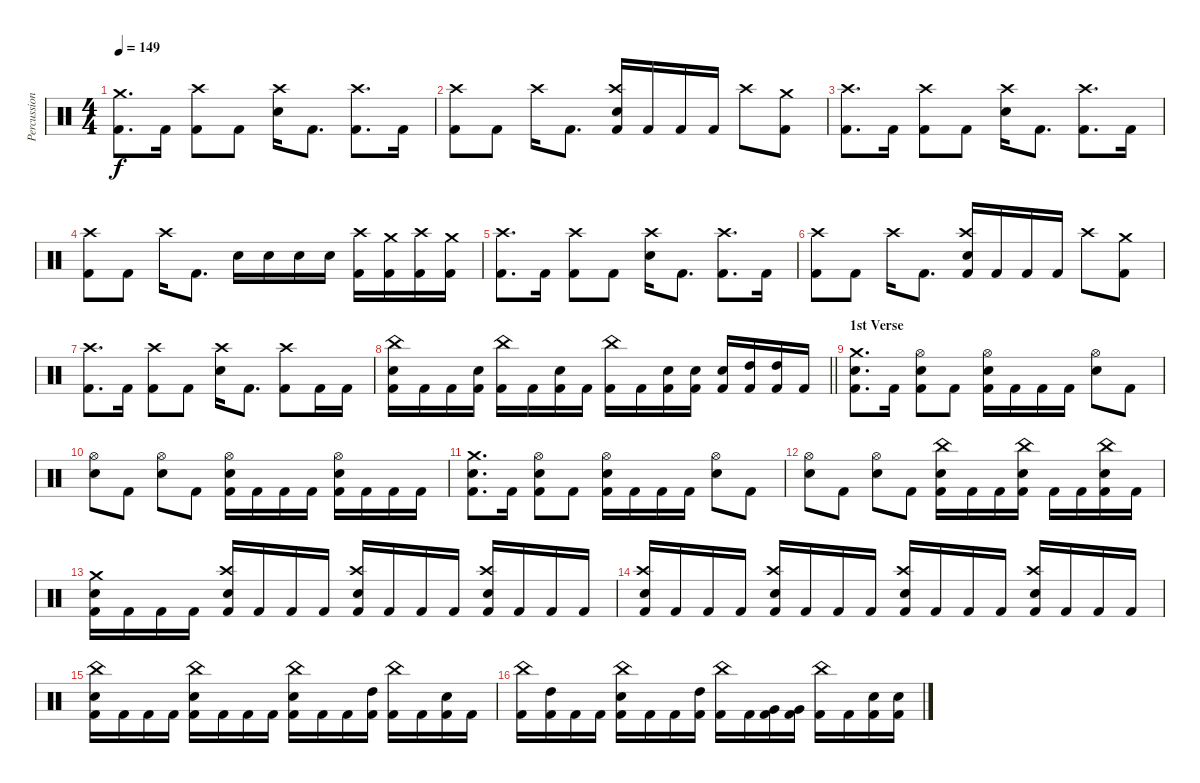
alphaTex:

\track ("Percussions" "Percussion") {instrument percussion}
\staff {score}
\articulation defaults
\ts (4 4)
\tempo 149
\clef neutral
\ks c
("Crash medium (hit)" "Kick (hit) 2").8{d dy f} "Kick (hit) 2".16 ("Crash high (hit)" "Kick (hit) 2").8 "Kick (hit) 2".8 ("Crash high (hit)" "Snare (hit) 2").16 "Kick (hit) 2".8{d} ("Crash high (hit)" "Kick (hit) 2").8{d} "Kick (hit) 2".16 |
("Crash high (hit)" "Kick (hit) 2").8 "Kick (hit) 2".8 "Crash high (hit)".16 "Kick (hit) 2".8{d} ("Crash high (hit)" "Snare (hit) 2" "Kick (hit) 2").16 "Kick (hit) 2".16 "Kick (hit) 2".16 "Kick (hit) 2".16 "Crash high (hit)".8 ("Crash medium (hit)" "Kick (hit) 2").8 |
("Crash high (hit)" "Kick (hit) 2").8{d} "Kick (hit) 2".16 ("Crash high (hit)" "Kick (hit) 2").8 "Kick (hit) 2".8 ("Crash high (hit)" "Snare (hit) 2").16 "Kick (hit) 2".8{d} ("Crash high (hit)" "Kick (hit) 2").8{d} "Kick (hit) 2".16 |
("Crash high (hit)" "Kick (hit) 2").8 "Kick (hit) 2".8 "Crash high (hit)".16 "Kick (hit) 2".8{d} "Snare (hit) 2".16 "Snare (hit) 2".16 "Snare (hit) 2".16 "Snare (hit) 2".16 ("Crash high (hit)" "Kick (hit) 2").16 ("Crash medium (hit)" "Kick (hit) 2").16 ("Crash high (hit)" "Kick (hit) 2").16 ("Crash medium (hit)" "Kick (hit) 2").16 |
("Crash high (hit)" "Kick (hit) 2").8{d} "Kick (hit) 2".16 ("Crash high (hit)" "Kick (hit) 2").8 "Kick (hit) 2".8 ("Crash high (hit)" "Snare (hit) 2").16 "Kick (hit) 2".8{d} ("Crash high (hit)" "Kick (hit) 2").8{d} "Kick (hit) 2".16 |
("Crash high (hit)" "Kick (hit) 2").8 "Kick (hit) 2".8 "Crash high (hit)".16 "Kick (hit) 2".8{d} ("Crash high (hit)" "Snare (hit) 2" "Kick (hit) 2").16 "Kick (hit) 2".16 "Kick (hit) 2".16 "Kick (hit) 2".16 "Crash high (hit)".8 ("Crash medium (hit)" "Kick (hit) 2").8 |
("Crash high (hit)" "Kick (hit) 2").8{d} "Kick (hit) 2".16 ("Crash high (hit)" "Kick (hit) 2").8 "Kick (hit) 2".8 ("Crash high (hit)" "Snare (hit) 2").16 "Kick (hit) 2".8{d} ("Crash high (hit)" "Kick (hit) 2").8 "Kick (hit) 2".16 "Kick (hit) 2".16 |
\barLineRight lightlight
("China (hit)" "Snare (hit) 2" "Kick (hit) 2").16 "Kick (hit) 2".16 "Kick (hit) 2".16 ("Snare (hit) 2" "Kick (hit) 2").16 ("China (hit)" "Kick (hit) 2").16 "Kick (hit) 2".16 ("Snare (hit) 2" "Kick (hit) 2").16 "Kick (hit) 2".16 ("China (hit)" "Kick (hit) 2").16 "Kick (hit) 2".16 ("Snare (hit) 2" "Kick (hit) 2").16 ("Snare (hit) 2" "Kick (hit) 2").16 ("Snare (hit) 2" "Kick (hit) 2").16 ("High Tom (hit)" "Kick (hit) 2").16 ("High Tom (hit)" "Kick (hit) 2").16 "Kick (hit) 2".16 |
\section ("" "1st Verse")
("Crash medium (hit)" "Snare (hit) 2" "Kick (hit) 2").8{d} "Kick (hit) 2".16 ("Hi-Hat (open)" "Snare (hit) 2" "Kick (hit) 2").8 "Kick (hit) 2".8 ("Hi-Hat (open)" "Snare (hit) 2" "Kick (hit) 2").16 "Kick (hit) 2".16 "Kick (hit) 2".16 "Kick (hit) 2".16 ("Hi-Hat (open)" "Snare (hit) 2").8 "Kick (hit) 2".8 |
("Hi-Hat (open)" "Snare (hit) 2").8 "Kick (hit) 2".8 ("Hi-Hat (open)" "Snare (hit) 2").8 "Kick (hit) 2".8 ("Hi-Hat (open)" "Snare (hit) 2" "Kick (hit) 2").16 "Kick (hit) 2".16 "Kick (hit) 2".16 "Kick (hit) 2".16 ("Hi-Hat (open)" "Snare (hit) 2" "Kick (hit) 2").16 "Kick (hit) 2".16 "Kick (hit) 2".16 "Kick (hit) 2".16 |
("Crash medium (hit)" "Snare (hit) 2" "Kick (hit) 2").8{d} "Kick (hit) 2".16 ("Hi-Hat (open)" "Snare (hit) 2" "Kick (hit) 2").8 "Kick (hit) 2".8 ("Hi-Hat (open)" "Snare (hit) 2" "Kick (hit) 2").16 "Kick (hit) 2".16 "Kick (hit) 2".16 "Kick (hit) 2".16 ("Hi-Hat (open)" "Snare (hit) 2").8 "Kick (hit) 2".8 |
("Hi-Hat (open)" "Snare (hit) 2").8 "Kick (hit) 2".8 ("Hi-Hat (open)" "Snare (hit) 2").8 "Kick (hit) 2".8 ("China (hit)" "Snare (hit) 2" "Kick (hit) 2").16 "Kick (hit) 2".16 "Kick (hit) 2".16 ("China (hit)" "Snare (hit) 2" "Kick (hit) 2").16 "Kick (hit) 2".16 "Kick (hit) 2".16 ("China (hit)" "Snare (hit) 2" "Kick (hit) 2").16 "Kick (hit) 2".16 |
("Crash medium (hit)" "Snare (hit) 2" "Kick (hit) 2").16 "Kick (hit) 2".16 "Kick (hit) 2".16 "Kick (hit) 2".16 ("Crash high (hit)" "Snare (hit) 2" "Kick (hit) 2").16 "Kick (hit) 2".16 "Kick (hit) 2".16 "Kick (hit) 2".16 ("Crash high (hit)" "Snare (hit) 2" "Kick (hit) 2").16 "Kick (hit) 2".16 "Kick (hit) 2".16 "Kick (hit) 2".16 ("Crash high (hit)" "Snare (hit) 2" "Kick (hit) 2").16 "Kick (hit) 2".16 "Kick (hit) 2".16 "Kick (hit) 2".16 |
("Crash high (hit)" "Snare (hit) 2" "Kick (hit) 2").16 "Kick (hit) 2".16 "Kick (hit) 2".16 "Kick (hit) 2".16 ("Crash high (hit)" "Snare (hit) 2" "Kick (hit) 2").16 "Kick (hit) 2".16 "Kick (hit) 2".16 "Kick (hit) 2".16 ("Crash high (hit)" "Snare (hit) 2" "Kick (hit) 2").16 "Kick (hit) 2".16 "Kick (hit) 2".16 "Kick (hit) 2".16 ("Crash high (hit)" "Snare (hit) 2" "Kick (hit) 2").16 "Kick (hit) 2".16 "Kick (hit) 2".16 "Kick (hit) 2".16 |
("China (hit)" "Snare (hit) 2" "Kick (hit) 2").16 "Kick (hit) 2".16 "Kick (hit) 2".16 "Kick (hit) 2".16 ("China (hit)" "Snare (hit) 2" "Kick (hit) 2").16 "Kick (hit) 2".16 "Kick (hit) 2".16 "Kick (hit) 2".16 ("China (hit)" "Snare (hit) 2" "Kick (hit) 2").16 "Kick (hit) 2".16 "Kick (hit) 2".16 ("High Tom (hit)" "Kick (hit) 2").16 ("China (hit)" "Kick (hit) 2").16 "Kick (hit) 2".16 ("Snare (hit) 2" "Kick (hit) 2").16 "Kick (hit) 2".16 |
("China (hit)" "Kick (hit) 2").16 ("High Tom (hit)" "Kick (hit) 2").16 "Kick (hit) 2".16 "Kick (hit) 2".16 ("China (hit)" "Snare (hit) 2" "Kick (hit) 2").16 "Kick (hit) 2".16 "Kick (hit) 2".16 ("High Tom (hit)" "Kick (hit) 2").16 ("China (hit)" "Kick (hit) 2").16 "Kick (hit) 2".16 ("Very Low Tom (hit)" "Kick (hit) 2").16 ("Very Low Tom (hit)" "Kick (hit) 2").16 ("China (hit)" "Kick (hit) 2").16 "Kick (hit) 2".16 ("Snare (hit) 2" "Kick (hit) 2").16 ("Snare (hit) 2" "Kick (hit) 2").16
